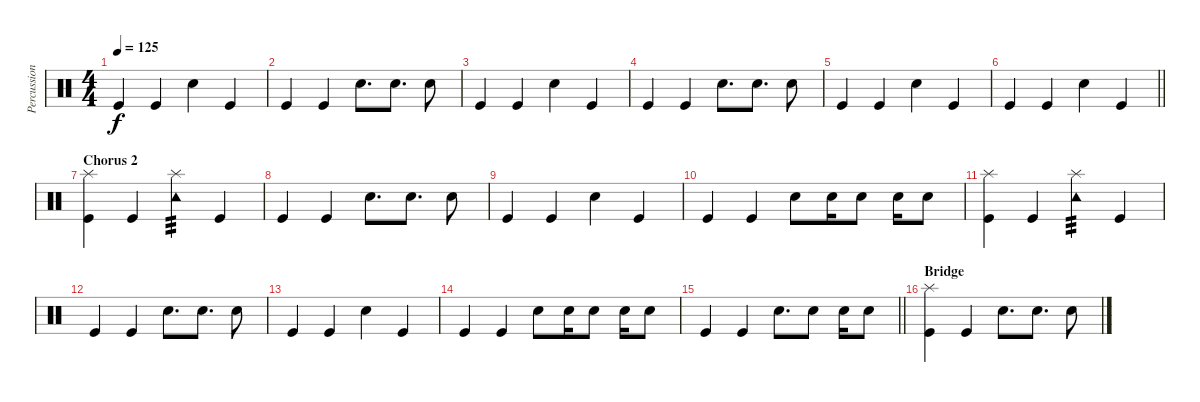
\track ("Percussion" "Percussion") {instrument percussion}
\staff {score}
\articulation defaults
\ts (4 4)
\tempo 125
\clef neutral
\ks c "Kick (hit)".4{dy f} "Kick (hit)".4 "Snare (hit) 2".4 "Kick (hit)".4
|
"Kick (hit)".4 "Kick (hit)".4 "Snare (hit) 2".8{d} "Snare (hit) 2".8{d} "Snare (hit) 2".8 |
"Kick (hit)".4 "Kick (hit)".4 "Snare (hit) 2".4 "Kick (hit)".4 |
"Kick (hit)".4 "Kick (hit)".4 "Snare (hit) 2".8{d} "Snare (hit) 2".8{d} "Snare (hit) 2".8 |
"Kick (hit)".4 "Kick (hit)".4 "Snare (hit) 2".4 "Kick (hit)".4 |
\barLineRight lightlight "Kick (hit)".4 "Kick (hit)".4 "Snare (hit) 2".4 "Kick (hit)".4
|
\section ("" "Chorus 2")
("Splash (hit)" "Kick (hit)").4 "Kick (hit)".4 ("Tambourine (hit)" "Splash (hit)").4{tp 3} "Kick (hit)".4 |
"Kick (hit)".4 "Kick (hit)".4 "Snare (hit) 2".8{d} "Snare (hit) 2".8{d} "Snare (hit) 2".8 |
"Kick (hit)".4 "Kick (hit)".4 "Snare (hit) 2".4 "Kick (hit)".4 |
"Kick (hit)".4 "Kick (hit)".4 "Snare (hit) 2".8 "Snare (hit) 2".16 "Snare (hit) 2".8 "Snare (hit) 2".16 "Snare (hit) 2".8 |
("Splash (hit)" "Kick (hit)").4 "Kick (hit)".4 ("Tambourine (hit)" "Splash (hit)").4{tp 3} "Kick (hit)".4 |
"Kick (hit)".4 "Kick (hit)".4 "Snare (hit) 2".8{d} "Snare (hit) 2".8{d} "Snare (hit) 2".8 |
"Kick (hit)".4 "Kick (hit)".4 "Snare (hit) 2".4 "Kick (hit)".4 |
"Kick (hit)".4 "Kick (hit)".4 "Snare (hit) 2".8 "Snare (hit) 2".16 "Snare (hit) 2".8 "Snare (hit) 2".16 "Snare (hit) 2".8 |
\barLineRight lightlight "Kick (hit)".4 "Kick (hit)".4 "Snare (hit) 2".8{d} "Snare (hit) 2".8 "Snare (hit) 2".16 "Snare (hit) 2".8
|
\section ("" "Bridge")
("Splash (hit)" "Kick (hit)").4 "Kick (hit)".4 "Snare (hit) 2".8{d} "Snare (hit) 2".8{d} "Snare (hit) 2".8
